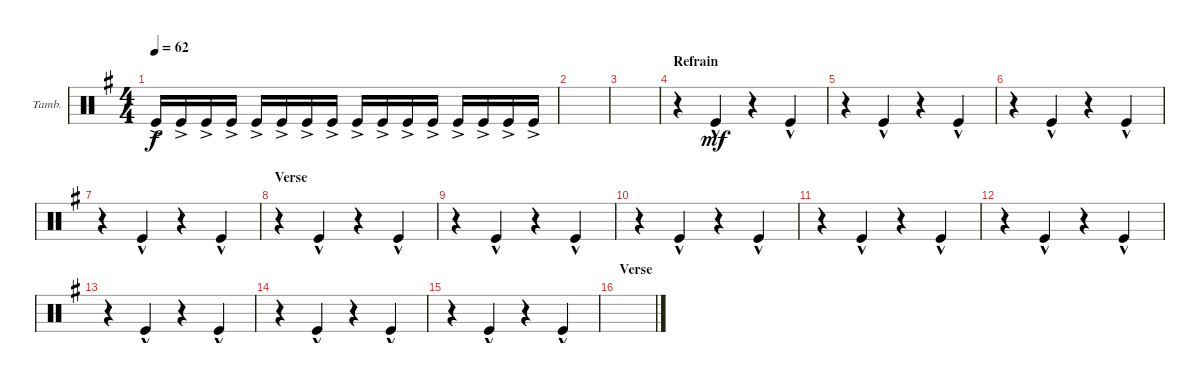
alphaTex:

\defaultSystemsLayout 4
\bracketExtendMode groupsimilarinstruments
\firstSystemTrackNameOrientation horizontal
\otherSystemsTrackNameOrientation horizontal
\track ("Tambourine" "Tamb.") {instrument percussion}
\staff {score}
\articulation defaults
\ts (4 4)
\tempo 62
\clef neutral
\scale
0.333333
\ks g "Kick (hit)"{ac}.16{dy f} "Kick (hit)"{ac}.16 "Kick (hit)"{ac}.16 "Kick (hit)"{ac}.16 "Kick (hit)"{ac}.16 "Kick (hit)"{ac}.16 "Kick (hit)"{ac}.16 "Kick (hit)"{ac}.16 "Kick (hit)"{ac}.16 "Kick (hit)"{ac}.16 "Kick (hit)"{ac}.16 "Kick (hit)"{ac}.16 "Kick (hit)"{ac}.16 "Kick (hit)"{ac}.16 "Kick (hit)"{ac}.16 "Kick (hit)"{ac}.16
|
\scale
0.333333 |
\scale
0.333333 |
\section ("" "Refrain")
\scale
0.333333 r.4 "Kick (hit)"{hac}.4{dy mf} r.4 "Kick (hit)"{hac}.4 |
\scale
0.333333 r.4 "Kick (hit)"{hac}.4 r.4 "Kick (hit)"{hac}.4 |
\scale
0.333333 r.4 "Kick (hit)"{hac}.4 r.4 "Kick (hit)"{hac}.4 |
\scale
0.333333 r.4 "Kick (hit)"{hac}.4 r.4 "Kick (hit)"{hac}.4 |
\section ("" "Verse")
\scale
0.333333 r.4 "Kick (hit)"{hac}.4 r.4 "Kick (hit)"{hac}.4 |
r.4 "Kick (hit)"{hac}.4 r.4 "Kick (hit)"{hac}.4 |
r.4 "Kick (hit)"{hac}.4 r.4 "Kick (hit)"{hac}.4 |
r.4 "Kick (hit)"{hac}.4 r.4 "Kick (hit)"{hac}.4 |
r.4 "Kick (hit)"{hac}.4 r.4 "Kick (hit)"{hac}.4 |
r.4 "Kick (hit)"{hac}.4 r.4 "Kick (hit)"{hac}.4 |
r.4 "Kick (hit)"{hac}.4 r.4 "Kick (hit)"{hac}.4 |
r.4 "Kick (hit)"{hac}.4 r.4 "Kick (hit)"{hac}.4 |
\section ("" "Verse")
